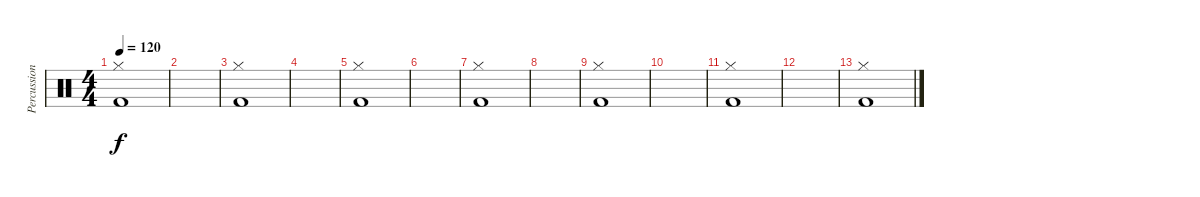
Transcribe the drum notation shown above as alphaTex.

\track ("Percussion" "Percussion") {instrument percussion}
\staff {score}
\articulation defaults
\ts (4 4)
\tempo 120
\clef neutral
\ks c
("Hi-Hat (closed)" "Kick (hit) 2").1{dy f} |
|
("Hi-Hat (closed)" "Kick (hit) 2").1 |
|
("Hi-Hat (closed)" "Kick (hit) 2").1 |
|
("Hi-Hat (closed)" "Kick (hit) 2").1 |
|
("Hi-Hat (closed)" "Kick (hit) 2").1 |
|
("Hi-Hat (closed)" "Kick (hit) 2").1 |
|
("Hi-Hat (closed)" "Kick (hit) 2").1
